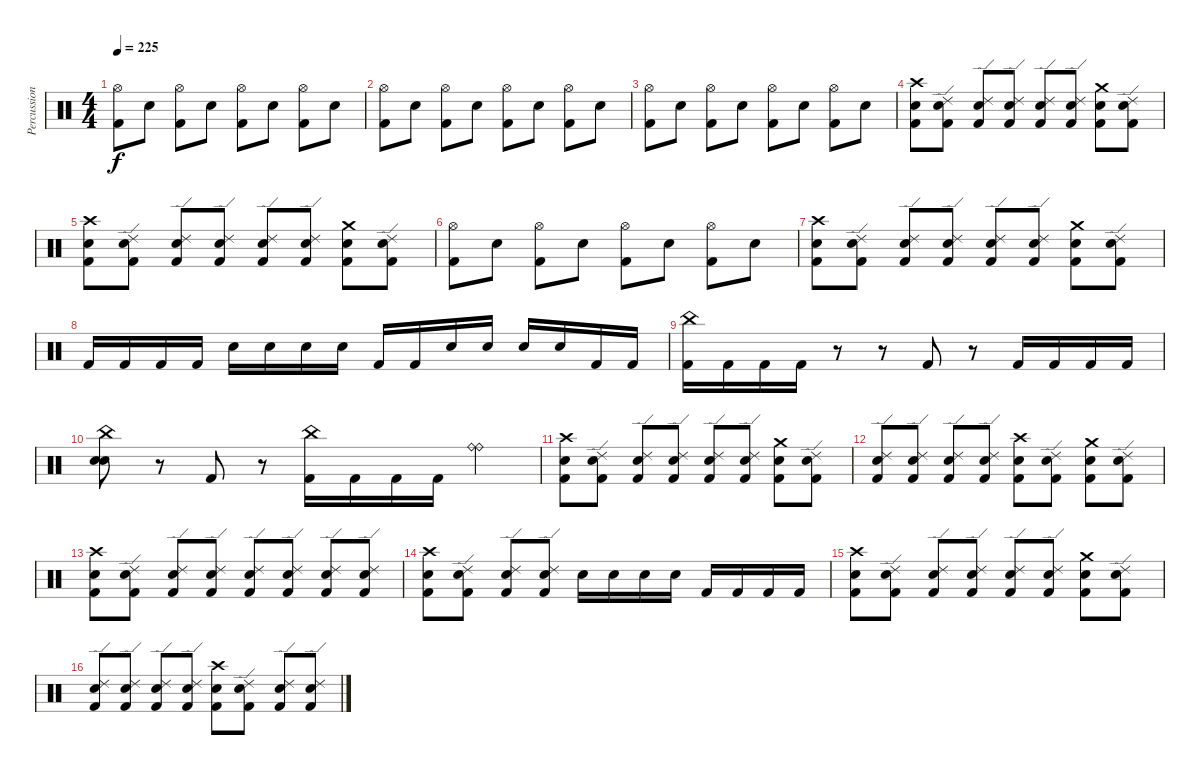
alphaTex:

\track ("Percussion" "Percussion") {instrument percussion}
\staff {score}
\articulation defaults
\ts (4 4)
\tempo 225
\clef neutral
\ks c
("Hi-Hat (open)" "Kick (hit) 2").8{dy f} "Electric Snare (hit)".8 ("Hi-Hat (open)" "Kick (hit) 2").8 "Electric Snare (hit)".8 ("Hi-Hat (open)" "Kick (hit) 2").8 "Electric Snare (hit)".8 ("Hi-Hat (open)" "Kick (hit) 2").8 "Electric Snare (hit)".8 |
("Hi-Hat (open)" "Kick (hit) 2").8 "Electric Snare (hit)".8 ("Hi-Hat (open)" "Kick (hit) 2").8 "Electric Snare (hit)".8 ("Hi-Hat (open)" "Kick (hit) 2").8 "Electric Snare (hit)".8 ("Hi-Hat (open)" "Kick (hit) 2").8 "Electric Snare (hit)".8 |
("Hi-Hat (open)" "Kick (hit) 2").8 "Electric Snare (hit)".8 ("Hi-Hat (open)" "Kick (hit) 2").8 "Electric Snare (hit)".8 ("Hi-Hat (open)" "Kick (hit) 2").8 "Electric Snare (hit)".8 ("Hi-Hat (open)" "Kick (hit) 2").8 "Electric Snare (hit)".8 |
("Crash high (hit)" "Kick (hit) 2" "Electric Snare (hit)").8 ("Ride (edge) 2" "Kick (hit) 2" "Electric Snare (hit)").8 ("Ride (edge) 2" "Kick (hit) 2" "Electric Snare (hit)").8 ("Ride (edge) 2" "Kick (hit) 2" "Electric Snare (hit)").8 ("Ride (edge) 2" "Kick (hit) 2" "Electric Snare (hit)").8 ("Ride (edge) 2" "Kick (hit) 2" "Electric Snare (hit)").8 ("Crash medium (hit)" "Kick (hit) 2" "Electric Snare (hit)").8 ("Ride (edge) 2" "Kick (hit) 2" "Electric Snare (hit)").8 |
("Crash high (hit)" "Kick (hit) 2" "Electric Snare (hit)").8 ("Ride (edge) 2" "Kick (hit) 2" "Electric Snare (hit)").8 ("Ride (edge) 2" "Kick (hit) 2" "Electric Snare (hit)").8 ("Ride (edge) 2" "Kick (hit) 2" "Electric Snare (hit)").8 ("Ride (edge) 2" "Kick (hit) 2" "Electric Snare (hit)").8 ("Ride (edge) 2" "Kick (hit) 2" "Electric Snare (hit)").8 ("Crash medium (hit)" "Kick (hit) 2" "Electric Snare (hit)").8 ("Ride (edge) 2" "Kick (hit) 2" "Electric Snare (hit)").8 |
("Hi-Hat (open)" "Kick (hit) 2").8 "Electric Snare (hit)".8 ("Hi-Hat (open)" "Kick (hit) 2").8 "Electric Snare (hit)".8 ("Hi-Hat (open)" "Kick (hit) 2").8 "Electric Snare (hit)".8 ("Hi-Hat (open)" "Kick (hit) 2").8 "Electric Snare (hit)".8 |
("Crash high (hit)" "Kick (hit) 2" "Electric Snare (hit)").8 ("Ride (edge) 2" "Kick (hit) 2" "Electric Snare (hit)").8 ("Ride (edge) 2" "Kick (hit) 2" "Electric Snare (hit)").8 ("Ride (edge) 2" "Kick (hit) 2" "Electric Snare (hit)").8 ("Ride (edge) 2" "Kick (hit) 2" "Electric Snare (hit)").8 ("Ride (edge) 2" "Kick (hit) 2" "Electric Snare (hit)").8 ("Crash medium (hit)" "Kick (hit) 2" "Electric Snare (hit)").8 ("Ride (edge) 2" "Kick (hit) 2" "Electric Snare (hit)").8 |
"Kick (hit) 2".16 "Kick (hit) 2".16 "Kick (hit) 2".16 "Kick (hit) 2".16 "Electric Snare (hit)".16 "Electric Snare (hit)".16 "Electric Snare (hit)".16 "Electric Snare (hit)".16 "Kick (hit) 2".16 "Kick (hit) 2".16 "Electric Snare (hit)".16 "Electric Snare (hit)".16 "Electric Snare (hit)".16 "Electric Snare (hit)".16 "Kick (hit) 2".16 "Kick (hit) 2".16 |
("China (hit)" "Kick (hit) 2").16 "Kick (hit) 2".16 "Kick (hit) 2".16 "Kick (hit) 2".16 r.8 r.8 "Kick (hit) 2".8 r.8 "Kick (hit) 2".16 "Kick (hit) 2".16 "Kick (hit) 2".16 "Kick (hit) 2".16 |
("China (hit)" "Electric Snare (hit)" "Electric Snare (hit)").8 r.8 "Kick (hit) 2".8 r.8 ("China (hit)" "Kick (hit) 2").16 "Kick (hit) 2".16 "Kick (hit) 2".16 "Kick (hit) 2".16 ("Ride (bell)" "Ride (bell)").4 |
("Crash high (hit)" "Kick (hit) 2" "Electric Snare (hit)").8 ("Ride (edge) 2" "Kick (hit) 2" "Electric Snare (hit)").8 ("Ride (edge) 2" "Kick (hit) 2" "Electric Snare (hit)").8 ("Ride (edge) 2" "Kick (hit) 2" "Electric Snare (hit)").8 ("Ride (edge) 2" "Kick (hit) 2" "Electric Snare (hit)").8 ("Ride (edge) 2" "Kick (hit) 2" "Electric Snare (hit)").8 ("Crash medium (hit)" "Kick (hit) 2" "Electric Snare (hit)").8 ("Ride (edge) 2" "Kick (hit) 2" "Electric Snare (hit)").8 |
("Ride (edge) 2" "Kick (hit) 2" "Electric Snare (hit)").8 ("Ride (edge) 2" "Kick (hit) 2" "Electric Snare (hit)").8 ("Ride (edge) 2" "Kick (hit) 2" "Electric Snare (hit)").8 ("Ride (edge) 2" "Kick (hit) 2" "Electric Snare (hit)").8 ("Crash high (hit)" "Kick (hit) 2" "Electric Snare (hit)").8 ("Ride (edge) 2" "Kick (hit) 2" "Electric Snare (hit)").8 ("Crash medium (hit)" "Kick (hit) 2" "Electric Snare (hit)").8 ("Ride (edge) 2" "Kick (hit) 2" "Electric Snare (hit)").8 |
("Crash high (hit)" "Kick (hit) 2" "Electric Snare (hit)").8 ("Ride (edge) 2" "Kick (hit) 2" "Electric Snare (hit)").8 ("Ride (edge) 2" "Kick (hit) 2" "Electric Snare (hit)").8 ("Ride (edge) 2" "Kick (hit) 2" "Electric Snare (hit)").8 ("Ride (edge) 2" "Kick (hit) 2" "Electric Snare (hit)").8 ("Ride (edge) 2" "Kick (hit) 2" "Electric Snare (hit)").8 ("Ride (edge) 2" "Kick (hit) 2" "Electric Snare (hit)").8 ("Ride (edge) 2" "Kick (hit) 2" "Electric Snare (hit)").8 |
("Crash high (hit)" "Kick (hit) 2" "Electric Snare (hit)").8 ("Ride (edge) 2" "Kick (hit) 2" "Electric Snare (hit)").8 ("Ride (edge) 2" "Kick (hit) 2" "Electric Snare (hit)").8 ("Ride (edge) 2" "Kick (hit) 2" "Electric Snare (hit)").8 "Electric Snare (hit)".16 "Electric Snare (hit)".16 "Electric Snare (hit)".16 "Electric Snare (hit)".16 "Kick (hit) 2".16 "Kick (hit) 2".16 "Kick (hit) 2".16 "Kick (hit) 2".16 |
("Crash high (hit)" "Kick (hit) 2" "Electric Snare (hit)").8 ("Ride (edge) 2" "Kick (hit) 2" "Electric Snare (hit)").8 ("Ride (edge) 2" "Kick (hit) 2" "Electric Snare (hit)").8 ("Ride (edge) 2" "Kick (hit) 2" "Electric Snare (hit)").8 ("Ride (edge) 2" "Kick (hit) 2" "Electric Snare (hit)").8 ("Ride (edge) 2" "Kick (hit) 2" "Electric Snare (hit)").8 ("Crash medium (hit)" "Kick (hit) 2" "Electric Snare (hit)").8 ("Ride (edge) 2" "Kick (hit) 2" "Electric Snare (hit)").8 |
("Ride (edge) 2" "Kick (hit) 2" "Electric Snare (hit)").8 ("Ride (edge) 2" "Kick (hit) 2" "Electric Snare (hit)").8 ("Ride (edge) 2" "Kick (hit) 2" "Electric Snare (hit)").8 ("Ride (edge) 2" "Kick (hit) 2" "Electric Snare (hit)").8 ("Crash high (hit)" "Kick (hit) 2" "Electric Snare (hit)").8 ("Ride (edge) 2" "Kick (hit) 2" "Electric Snare (hit)").8 ("Ride (edge) 2" "Kick (hit) 2" "Electric Snare (hit)").8 ("Ride (edge) 2" "Kick (hit) 2" "Electric Snare (hit)").8
